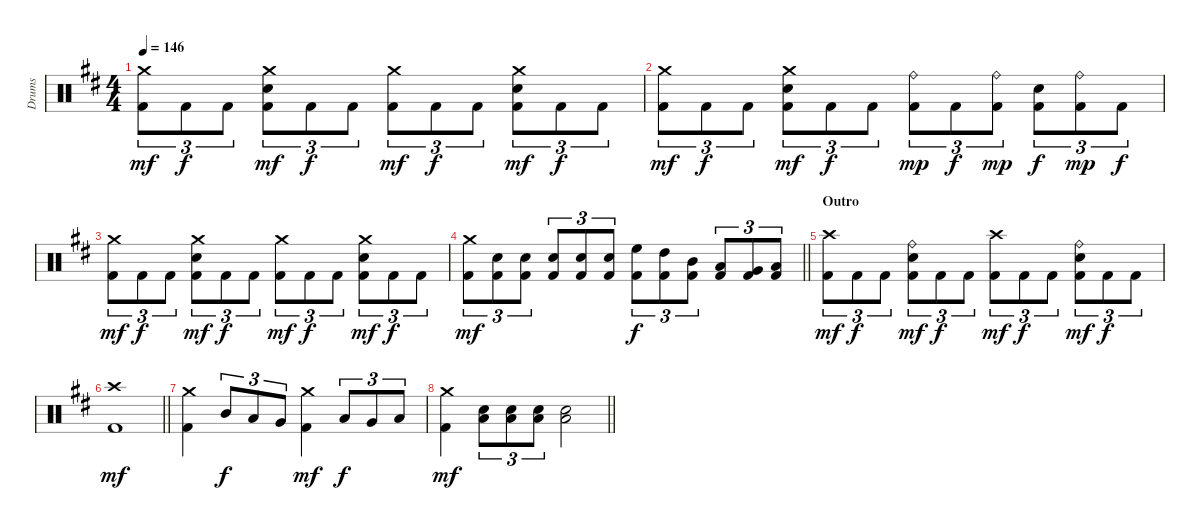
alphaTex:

\track ("Drums" "Drums") {instrument percussion}
\staff {score}
\articulation defaults
\ts (4 4)
\tempo 146
\clef neutral
\ks bminor
("Crash medium (hit)" "Kick (hit) 2").8{tu (3 2) dy mf} "Kick (hit) 2".8{tu (3 2) dy f} "Kick (hit) 2".8{tu (3 2)} ("Crash medium (hit)" "Electric Snare (hit)" "Kick (hit) 2").8{tu (3 2) dy mf} "Kick (hit) 2".8{tu (3 2) dy f} "Kick (hit) 2".8{tu (3 2)} ("Crash medium (hit)" "Kick (hit) 2").8{tu (3 2) dy mf} "Kick (hit) 2".8{tu (3 2) dy f} "Kick (hit) 2".8{tu (3 2)} ("Crash medium (hit)" "Electric Snare (hit)" "Kick (hit) 2").8{tu (3 2) dy mf} "Kick (hit) 2".8{tu (3 2) dy f} "Kick (hit) 2".8{tu (3 2)} |
("Crash medium (hit)" "Kick (hit) 2").8{tu (3 2) dy mf} "Kick (hit) 2".8{tu (3 2) dy f} "Kick (hit) 2".8{tu (3 2)} ("Crash medium (hit)" "Electric Snare (hit)" "Kick (hit) 2").8{tu (3 2) dy mf} "Kick (hit) 2".8{tu (3 2) dy f} "Kick (hit) 2".8{tu (3 2)} ("Ride (bell)" "Kick (hit) 2").8{tu (3 2) dy mp} "Kick (hit) 2".8{tu (3 2) dy f} ("Ride (bell)" "Kick (hit) 2").8{tu (3 2) dy mp} ("Electric Snare (hit)" "Kick (hit) 2").8{tu (3 2) dy f} ("Ride (bell)" "Kick (hit) 2").8{tu (3 2) dy mp} "Kick (hit) 2".8{tu (3 2) dy f} |
("Crash medium (hit)" "Kick (hit) 2").8{tu (3 2) dy mf} "Kick (hit) 2".8{tu (3 2) dy f} "Kick (hit) 2".8{tu (3 2)} ("Crash medium (hit)" "Electric Snare (hit)" "Kick (hit) 2").8{tu (3 2) dy mf} "Kick (hit) 2".8{tu (3 2) dy f} "Kick (hit) 2".8{tu (3 2)} ("Crash medium (hit)" "Kick (hit) 2").8{tu (3 2) dy mf} "Kick (hit) 2".8{tu (3 2) dy f} "Kick (hit) 2".8{tu (3 2)} ("Crash medium (hit)" "Electric Snare (hit)" "Kick (hit) 2").8{tu (3 2) dy mf} "Kick (hit) 2".8{tu (3 2) dy f} "Kick (hit) 2".8{tu (3 2)} |
\barLineRight lightlight
("Crash medium (hit)" "Kick (hit) 2").8{tu (3 2) dy mf} ("Electric Snare (hit)" "Kick (hit) 2").8{tu (3 2)} ("Electric Snare (hit)" "Kick (hit) 2").8{tu (3 2)} ("Electric Snare (hit)" "Kick (hit) 2").8{tu (3 2)} ("Electric Snare (hit)" "Kick (hit) 2").8{tu (3 2)} ("Electric Snare (hit)" "Kick (hit) 2").8{tu (3 2)} ("High Floor Tom (hit)" "Kick (hit) 2").8{tu (3 2) dy f} ("High Tom (hit)" "Kick (hit) 2").8{tu (3 2)} ("Mid Tom (hit)" "Kick (hit) 2").8{tu (3 2)} ("Low Tom (hit)" "Kick (hit) 2").8{tu (3 2)} ("Very Low Tom (hit)" "Kick (hit) 2").8{tu (3 2)} ("Low Floor Tom (hit)" "Kick (hit) 2").8{tu (3 2)} |
\section ("" "Outro")
("Crash high (hit)" "Kick (hit) 2").8{tu (3 2) dy mf} "Kick (hit) 2".8{tu (3 2) dy f} "Kick (hit) 2".8{tu (3 2)} ("Ride (bell)" "Electric Snare (hit)" "Kick (hit) 2").8{tu (3 2) dy mf} "Kick (hit) 2".8{tu (3 2) dy f} "Kick (hit) 2".8{tu (3 2)} ("Crash high (hit)" "Kick (hit) 2").8{tu (3 2) dy mf} "Kick (hit) 2".8{tu (3 2) dy f} "Kick (hit) 2".8{tu (3 2)} ("Ride (bell)" "Electric Snare (hit)" "Kick (hit) 2").8{tu (3 2) dy mf} "Kick (hit) 2".8{tu (3 2) dy f} "Kick (hit) 2".8{tu (3 2)} |
\barLineRight lightlight
("Crash high (hit)" "Kick (hit) 2").1{dy mf} |
("Crash medium (hit)" "Kick (hit) 2").4 "Mid Tom (hit)".8{tu (3 2) dy f} "Low Tom (hit)".8{tu (3 2)} "Very Low Tom (hit)".8{tu (3 2)} ("Crash medium (hit)" "Kick (hit) 2").4{dy mf} "Low Tom (hit)".8{tu (3 2) dy f} "Very Low Tom (hit)".8{tu (3 2)} "Low Floor Tom (hit)".8{tu (3 2)} |
\barLineRight lightlight
("Crash medium (hit)" "Kick (hit) 2").4{dy mf} ("Low Floor Tom (hit)" "Electric Snare (hit)").8{tu (3 2)} ("Low Floor Tom (hit)" "Electric Snare (hit)").8{tu (3 2)} ("Low Floor Tom (hit)" "Electric Snare (hit)").8{tu (3 2)} ("Low Floor Tom (hit)" "Electric Snare (hit)").2
